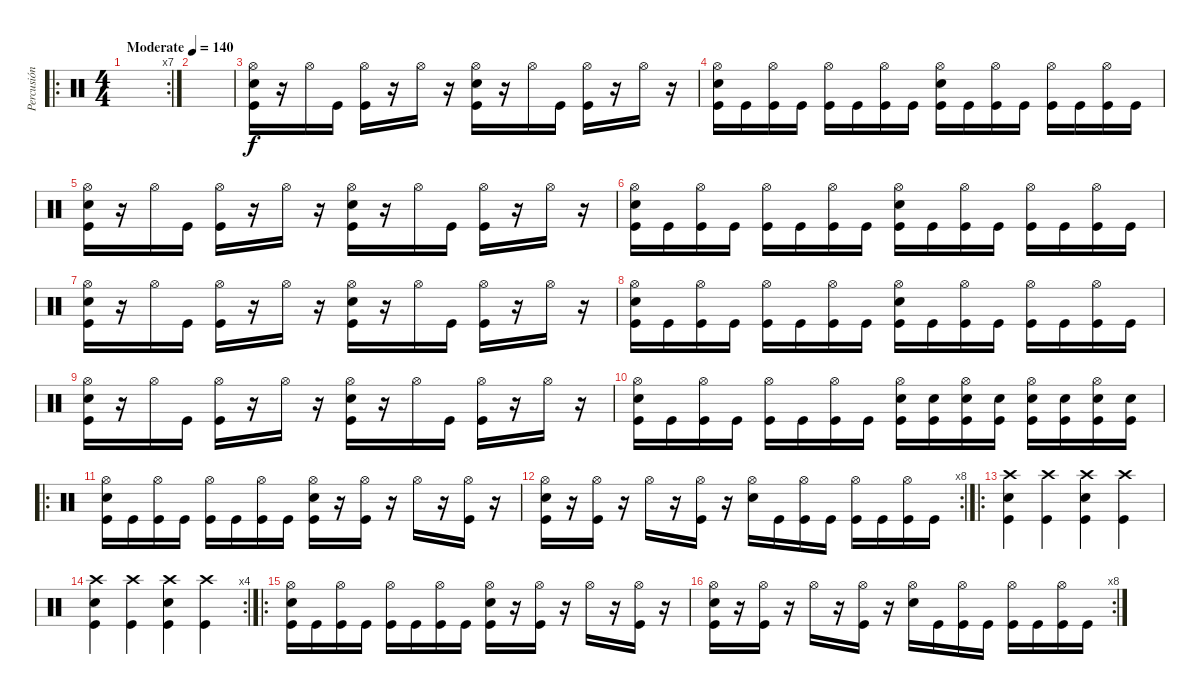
\track ("Percusión" "Percusión") {instrument percussion}
\staff {score}
\articulation defaults
\ro
\rc 7
\ts (4 4)
\tempo (140 "Moderate")
\clef neutral
\ks c
|
|
("Hi-Hat (open)" "Snare (hit) 2" "Kick (hit)").16 r.16 "Hi-Hat (open)".16 "Kick (hit)".16 ("Hi-Hat (open)" "Kick (hit)").16 r.16 "Hi-Hat (open)".16 r.16 ("Hi-Hat (open)" "Snare (hit) 2" "Kick (hit)").16 r.16 "Hi-Hat (open)".16 "Kick (hit)".16 ("Hi-Hat (open)" "Kick (hit)").16 r.16 "Hi-Hat (open)".16 r.16 |
("Hi-Hat (open)" "Snare (hit) 2" "Kick (hit)").16 "Kick (hit)".16 ("Hi-Hat (open)" "Kick (hit)").16 "Kick (hit)".16 ("Hi-Hat (open)" "Kick (hit)").16 "Kick (hit)".16 ("Hi-Hat (open)" "Kick (hit)").16 "Kick (hit)".16 ("Hi-Hat (open)" "Snare (hit) 2" "Kick (hit)").16 "Kick (hit)".16 ("Hi-Hat (open)" "Kick (hit)").16 "Kick (hit)".16 ("Hi-Hat (open)" "Kick (hit)").16 "Kick (hit)".16 ("Hi-Hat (open)" "Kick (hit)").16 "Kick (hit)".16 |
("Hi-Hat (open)" "Snare (hit) 2" "Kick (hit)").16 r.16 "Hi-Hat (open)".16 "Kick (hit)".16 ("Hi-Hat (open)" "Kick (hit)").16 r.16 "Hi-Hat (open)".16 r.16 ("Hi-Hat (open)" "Snare (hit) 2" "Kick (hit)").16 r.16 "Hi-Hat (open)".16 "Kick (hit)".16 ("Hi-Hat (open)" "Kick (hit)").16 r.16 "Hi-Hat (open)".16 r.16 |
("Hi-Hat (open)" "Snare (hit) 2" "Kick (hit)").16 "Kick (hit)".16 ("Hi-Hat (open)" "Kick (hit)").16 "Kick (hit)".16 ("Hi-Hat (open)" "Kick (hit)").16 "Kick (hit)".16 ("Hi-Hat (open)" "Kick (hit)").16 "Kick (hit)".16 ("Hi-Hat (open)" "Snare (hit) 2" "Kick (hit)").16 "Kick (hit)".16 ("Hi-Hat (open)" "Kick (hit)").16 "Kick (hit)".16 ("Hi-Hat (open)" "Kick (hit)").16 "Kick (hit)".16 ("Hi-Hat (open)" "Kick (hit)").16 "Kick (hit)".16 |
("Hi-Hat (open)" "Snare (hit) 2" "Kick (hit)").16 r.16 "Hi-Hat (open)".16 "Kick (hit)".16 ("Hi-Hat (open)" "Kick (hit)").16 r.16 "Hi-Hat (open)".16 r.16 ("Hi-Hat (open)" "Snare (hit) 2" "Kick (hit)").16 r.16 "Hi-Hat (open)".16 "Kick (hit)".16 ("Hi-Hat (open)" "Kick (hit)").16 r.16 "Hi-Hat (open)".16 r.16 |
("Hi-Hat (open)" "Snare (hit) 2" "Kick (hit)").16 "Kick (hit)".16 ("Hi-Hat (open)" "Kick (hit)").16 "Kick (hit)".16 ("Hi-Hat (open)" "Kick (hit)").16 "Kick (hit)".16 ("Hi-Hat (open)" "Kick (hit)").16 "Kick (hit)".16 ("Hi-Hat (open)" "Snare (hit) 2" "Kick (hit)").16 "Kick (hit)".16 ("Hi-Hat (open)" "Kick (hit)").16 "Kick (hit)".16 ("Hi-Hat (open)" "Kick (hit)").16 "Kick (hit)".16 ("Hi-Hat (open)" "Kick (hit)").16 "Kick (hit)".16 |
("Hi-Hat (open)" "Snare (hit) 2" "Kick (hit)").16 r.16 "Hi-Hat (open)".16 "Kick (hit)".16 ("Hi-Hat (open)" "Kick (hit)").16 r.16 "Hi-Hat (open)".16 r.16 ("Hi-Hat (open)" "Snare (hit) 2" "Kick (hit)").16 r.16 "Hi-Hat (open)".16 "Kick (hit)".16 ("Hi-Hat (open)" "Kick (hit)").16 r.16 "Hi-Hat (open)".16 r.16 |
("Hi-Hat (open)" "Snare (hit) 2" "Kick (hit)").16 "Kick (hit)".16 ("Hi-Hat (open)" "Kick (hit)").16 "Kick (hit)".16 ("Hi-Hat (open)" "Kick (hit)").16 "Kick (hit)".16 ("Hi-Hat (open)" "Kick (hit)").16 "Kick (hit)".16 ("Hi-Hat (open)" "Snare (hit) 2" "Kick (hit)").16 ("Snare (hit) 2" "Kick (hit)").16 ("Hi-Hat (open)" "Snare (hit) 2" "Kick (hit)").16 ("Snare (hit) 2" "Kick (hit)").16 ("Hi-Hat (open)" "Snare (hit) 2" "Kick (hit)").16 ("Snare (hit) 2" "Kick (hit)").16 ("Hi-Hat (open)" "Snare (hit) 2" "Kick (hit)").16 ("Snare (hit) 2" "Kick (hit)").16 |
\ro
("Hi-Hat (open)" "Snare (hit) 2" "Kick (hit)").16 "Kick (hit)".16 ("Hi-Hat (open)" "Kick (hit)").16 "Kick (hit)".16 ("Hi-Hat (open)" "Kick (hit)").16 "Kick (hit)".16 ("Hi-Hat (open)" "Kick (hit)").16 "Kick (hit)".16 ("Hi-Hat (open)" "Snare (hit) 2" "Kick (hit)").16 r.16 ("Hi-Hat (open)" "Kick (hit)").16 r.16 "Hi-Hat (open)".16 r.16 ("Hi-Hat (open)" "Kick (hit)").16 r.16 |
\rc 8
("Hi-Hat (open)" "Snare (hit) 2" "Kick (hit)").16 r.16 ("Hi-Hat (open)" "Kick (hit)").16 r.16 "Hi-Hat (open)".16 r.16 ("Hi-Hat (open)" "Kick (hit)").16 r.16 ("Hi-Hat (open)" "Snare (hit) 2").16 "Kick (hit)".16 ("Hi-Hat (open)" "Kick (hit)").16 "Kick (hit)".16 ("Hi-Hat (open)" "Kick (hit)").16 "Kick (hit)".16 ("Hi-Hat (open)" "Kick (hit)").16 "Kick (hit)".16 |
\ro
("Crash high (hit)" "Snare (hit) 2" "Kick (hit)").4 ("Crash high (hit)" "Kick (hit)").4 ("Crash high (hit)" "Snare (hit) 2" "Kick (hit)").4 ("Crash high (hit)" "Kick (hit)").4 |
\rc 4
("Crash high (hit)" "Snare (hit) 2" "Kick (hit)").4 ("Crash high (hit)" "Kick (hit)").4 ("Crash high (hit)" "Snare (hit) 2" "Kick (hit)").4 ("Crash high (hit)" "Kick (hit)").4 |
\ro
("Hi-Hat (open)" "Snare (hit) 2" "Kick (hit)").16 "Kick (hit)".16 ("Hi-Hat (open)" "Kick (hit)").16 "Kick (hit)".16 ("Hi-Hat (open)" "Kick (hit)").16 "Kick (hit)".16 ("Hi-Hat (open)" "Kick (hit)").16 "Kick (hit)".16 ("Hi-Hat (open)" "Snare (hit) 2" "Kick (hit)").16 r.16 ("Hi-Hat (open)" "Kick (hit)").16 r.16 "Hi-Hat (open)".16 r.16 ("Hi-Hat (open)" "Kick (hit)").16 r.16 |
\rc 8
("Hi-Hat (open)" "Snare (hit) 2" "Kick (hit)").16 r.16 ("Hi-Hat (open)" "Kick (hit)").16 r.16 "Hi-Hat (open)".16 r.16 ("Hi-Hat (open)" "Kick (hit)").16 r.16 ("Hi-Hat (open)" "Snare (hit) 2").16 "Kick (hit)".16 ("Hi-Hat (open)" "Kick (hit)").16 "Kick (hit)".16 ("Hi-Hat (open)" "Kick (hit)").16 "Kick (hit)".16 ("Hi-Hat (open)" "Kick (hit)").16 "Kick (hit)".16
